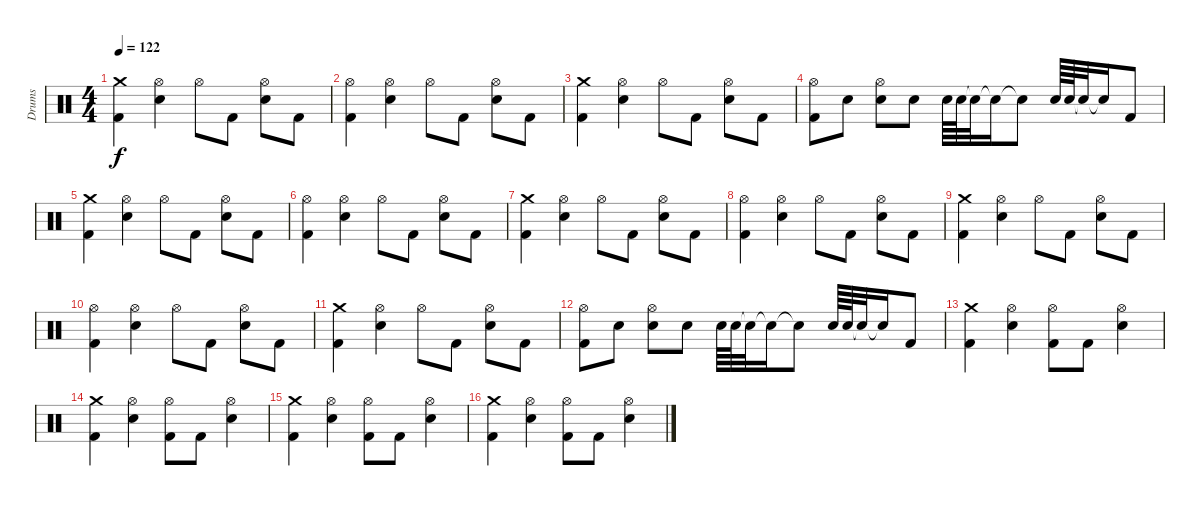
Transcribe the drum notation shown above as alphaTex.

\track ("Drums" "Drums") {instrument percussion}
\staff {score}
\articulation defaults
\ts (4 4)
\tempo 122
\clef neutral
\ks c
("Crash medium (hit)" "Kick (hit) 2").4{dy f} ("Hi-Hat (open)" "Electric Snare (hit)").4 "Hi-Hat (open)".8 "Kick (hit) 2".8 ("Hi-Hat (open)" "Electric Snare (hit)").8 "Kick (hit) 2".8 |
("Hi-Hat (open)" "Kick (hit) 2").4 ("Hi-Hat (open)" "Electric Snare (hit)").4 "Hi-Hat (open)".8 "Kick (hit) 2".8 ("Hi-Hat (open)" "Electric Snare (hit)").8 "Kick (hit) 2".8 |
("Crash medium (hit)" "Kick (hit) 2").4 ("Hi-Hat (open)" "Electric Snare (hit)").4 "Hi-Hat (open)".8 "Kick (hit) 2".8 ("Hi-Hat (open)" "Electric Snare (hit)").8 "Kick (hit) 2".8 |
("Hi-Hat (open)" "Kick (hit) 2").8 "Electric Snare (hit)".8 ("Hi-Hat (open)" "Electric Snare (hit)").8 "Electric Snare (hit)".8 "Electric Snare (hit)".64 "Electric Snare (hit)".64 "Snare (hit)"{t}.32 "Snare (hit)"{t}.16 "Snare (hit)"{t}.8 "Electric Snare (hit)".64 "Electric Snare (hit)".64 "Snare (hit)"{t}.32 "Snare (hit)"{t}.16 "Kick (hit) 2".8 |
("Crash medium (hit)" "Kick (hit) 2").4 ("Hi-Hat (open)" "Electric Snare (hit)").4 "Hi-Hat (open)".8 "Kick (hit) 2".8 ("Hi-Hat (open)" "Electric Snare (hit)").8 "Kick (hit) 2".8 |
("Hi-Hat (open)" "Kick (hit) 2").4 ("Hi-Hat (open)" "Electric Snare (hit)").4 "Hi-Hat (open)".8 "Kick (hit) 2".8 ("Hi-Hat (open)" "Electric Snare (hit)").8 "Kick (hit) 2".8 |
("Crash medium (hit)" "Kick (hit) 2").4 ("Hi-Hat (open)" "Electric Snare (hit)").4 "Hi-Hat (open)".8 "Kick (hit) 2".8 ("Hi-Hat (open)" "Electric Snare (hit)").8 "Kick (hit) 2".8 |
("Hi-Hat (open)" "Kick (hit) 2").4 ("Hi-Hat (open)" "Electric Snare (hit)").4 "Hi-Hat (open)".8 "Kick (hit) 2".8 ("Hi-Hat (open)" "Electric Snare (hit)").8 "Kick (hit) 2".8 |
("Crash medium (hit)" "Kick (hit) 2").4 ("Hi-Hat (open)" "Electric Snare (hit)").4 "Hi-Hat (open)".8 "Kick (hit) 2".8 ("Hi-Hat (open)" "Electric Snare (hit)").8 "Kick (hit) 2".8 |
("Hi-Hat (open)" "Kick (hit) 2").4 ("Hi-Hat (open)" "Electric Snare (hit)").4 "Hi-Hat (open)".8 "Kick (hit) 2".8 ("Hi-Hat (open)" "Electric Snare (hit)").8 "Kick (hit) 2".8 |
("Crash medium (hit)" "Kick (hit) 2").4 ("Hi-Hat (open)" "Electric Snare (hit)").4 "Hi-Hat (open)".8 "Kick (hit) 2".8 ("Hi-Hat (open)" "Electric Snare (hit)").8 "Kick (hit) 2".8 |
("Hi-Hat (open)" "Kick (hit) 2").8 "Electric Snare (hit)".8 ("Hi-Hat (open)" "Electric Snare (hit)").8 "Electric Snare (hit)".8 "Electric Snare (hit)".64 "Electric Snare (hit)".64 "Snare (hit)"{t}.32 "Snare (hit)"{t}.16 "Snare (hit)"{t}.8 "Electric Snare (hit)".64 "Electric Snare (hit)".64 "Snare (hit)"{t}.32 "Snare (hit)"{t}.16 "Kick (hit) 2".8 |
("Crash medium (hit)" "Kick (hit) 2").4 ("Hi-Hat (open)" "Electric Snare (hit)").4 ("Hi-Hat (open)" "Kick (hit) 2").8 "Kick (hit) 2".8 ("Hi-Hat (open)" "Electric Snare (hit)").4 |
("Crash medium (hit)" "Kick (hit) 2").4 ("Hi-Hat (open)" "Electric Snare (hit)").4 ("Hi-Hat (open)" "Kick (hit) 2").8 "Kick (hit) 2".8 ("Hi-Hat (open)" "Electric Snare (hit)").4 |
("Crash medium (hit)" "Kick (hit) 2").4 ("Hi-Hat (open)" "Electric Snare (hit)").4 ("Hi-Hat (open)" "Kick (hit) 2").8 "Kick (hit) 2".8 ("Hi-Hat (open)" "Electric Snare (hit)").4 |
("Crash medium (hit)" "Kick (hit) 2").4 ("Hi-Hat (open)" "Electric Snare (hit)").4 ("Hi-Hat (open)" "Kick (hit) 2").8 "Kick (hit) 2".8 ("Hi-Hat (open)" "Electric Snare (hit)").4
